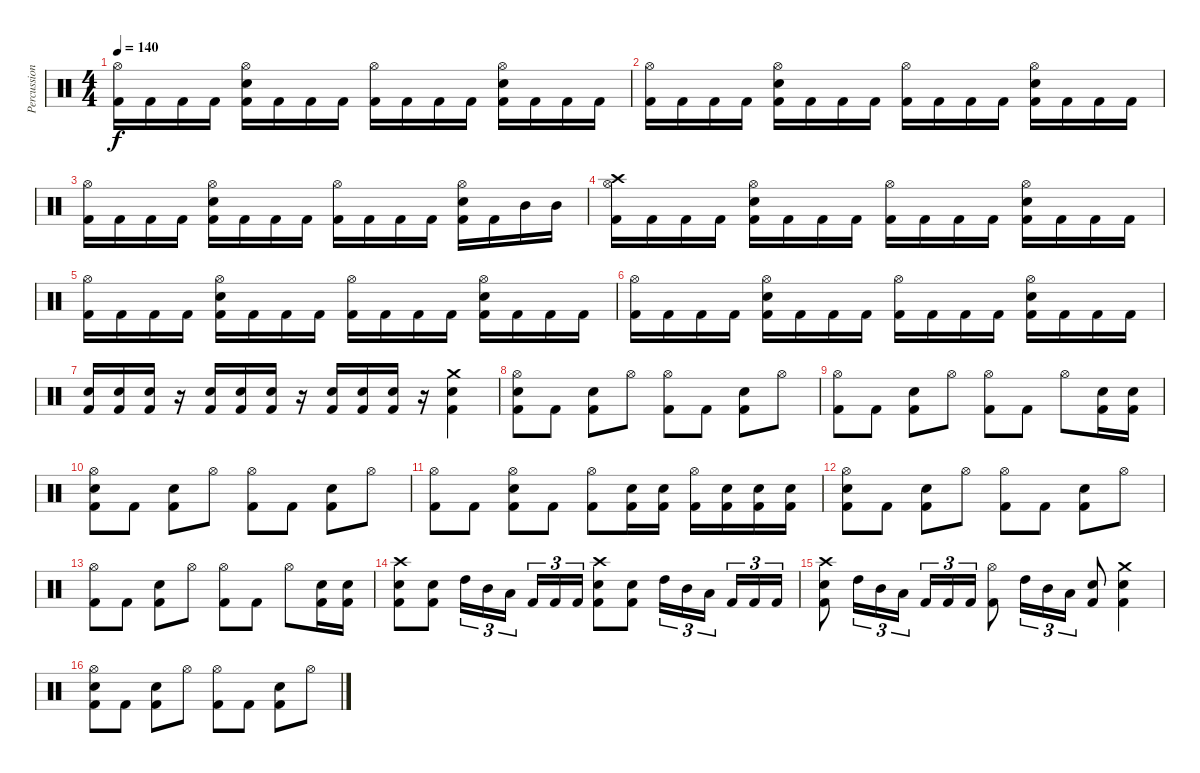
\track ("Percussions" "Percussion") {instrument percussion}
\staff {score}
\articulation defaults
\ts (4 4)
\tempo 140
\clef neutral
\ks c
("Hi-Hat (open)" "Kick (hit) 2").16{dy f} "Kick (hit) 2".16 "Kick (hit) 2".16 "Kick (hit) 2".16 ("Hi-Hat (open)" "Snare (hit) 2" "Kick (hit) 2").16 "Kick (hit) 2".16 "Kick (hit) 2".16 "Kick (hit) 2".16 ("Hi-Hat (open)" "Kick (hit) 2").16 "Kick (hit) 2".16 "Kick (hit) 2".16 "Kick (hit) 2".16 ("Hi-Hat (open)" "Snare (hit) 2" "Kick (hit) 2").16 "Kick (hit) 2".16 "Kick (hit) 2".16 "Kick (hit) 2".16 |
("Hi-Hat (open)" "Kick (hit) 2").16 "Kick (hit) 2".16 "Kick (hit) 2".16 "Kick (hit) 2".16 ("Hi-Hat (open)" "Snare (hit) 2" "Kick (hit) 2").16 "Kick (hit) 2".16 "Kick (hit) 2".16 "Kick (hit) 2".16 ("Hi-Hat (open)" "Kick (hit) 2").16 "Kick (hit) 2".16 "Kick (hit) 2".16 "Kick (hit) 2".16 ("Hi-Hat (open)" "Snare (hit) 2" "Kick (hit) 2").16 "Kick (hit) 2".16 "Kick (hit) 2".16 "Kick (hit) 2".16 |
("Hi-Hat (open)" "Kick (hit) 2").16 "Kick (hit) 2".16 "Kick (hit) 2".16 "Kick (hit) 2".16 ("Hi-Hat (open)" "Snare (hit) 2" "Kick (hit) 2").16 "Kick (hit) 2".16 "Kick (hit) 2".16 "Kick (hit) 2".16 ("Hi-Hat (open)" "Kick (hit) 2").16 "Kick (hit) 2".16 "Kick (hit) 2".16 "Kick (hit) 2".16 ("Hi-Hat (open)" "Snare (hit) 2" "Kick (hit) 2").16 "Kick (hit) 2".16 "Mid Tom (hit)".16 "Mid Tom (hit)".16 |
("Hi-Hat (open)" "Crash high (hit)" "Kick (hit) 2").16 "Kick (hit) 2".16 "Kick (hit) 2".16 "Kick (hit) 2".16 ("Hi-Hat (open)" "Snare (hit) 2" "Kick (hit) 2").16 "Kick (hit) 2".16 "Kick (hit) 2".16 "Kick (hit) 2".16 ("Hi-Hat (open)" "Kick (hit) 2").16 "Kick (hit) 2".16 "Kick (hit) 2".16 "Kick (hit) 2".16 ("Hi-Hat (open)" "Snare (hit) 2" "Kick (hit) 2").16 "Kick (hit) 2".16 "Kick (hit) 2".16 "Kick (hit) 2".16 |
("Hi-Hat (open)" "Kick (hit) 2").16 "Kick (hit) 2".16 "Kick (hit) 2".16 "Kick (hit) 2".16 ("Hi-Hat (open)" "Snare (hit) 2" "Kick (hit) 2").16 "Kick (hit) 2".16 "Kick (hit) 2".16 "Kick (hit) 2".16 ("Hi-Hat (open)" "Kick (hit) 2").16 "Kick (hit) 2".16 "Kick (hit) 2".16 "Kick (hit) 2".16 ("Hi-Hat (open)" "Snare (hit) 2" "Kick (hit) 2").16 "Kick (hit) 2".16 "Kick (hit) 2".16 "Kick (hit) 2".16 |
("Hi-Hat (open)" "Kick (hit) 2").16 "Kick (hit) 2".16 "Kick (hit) 2".16 "Kick (hit) 2".16 ("Hi-Hat (open)" "Snare (hit) 2" "Kick (hit) 2").16 "Kick (hit) 2".16 "Kick (hit) 2".16 "Kick (hit) 2".16 ("Hi-Hat (open)" "Kick (hit) 2").16 "Kick (hit) 2".16 "Kick (hit) 2".16 "Kick (hit) 2".16 ("Hi-Hat (open)" "Electric Snare (hit)" "Kick (hit) 2").16 "Kick (hit) 2".16 "Kick (hit) 2".16 "Kick (hit) 2".16 |
("Snare (hit) 2" "Kick (hit) 2").16 ("Snare (hit) 2" "Kick (hit) 2").16 ("Snare (hit) 2" "Kick (hit) 2").16 r.16 ("Snare (hit) 2" "Kick (hit) 2").16 ("Snare (hit) 2" "Kick (hit) 2").16 ("Snare (hit) 2" "Kick (hit) 2").16 r.16 ("Snare (hit) 2" "Kick (hit) 2").16 ("Snare (hit) 2" "Kick (hit) 2").16 ("Snare (hit) 2" "Kick (hit) 2").16 r.16 ("Crash medium (hit)" "Snare (hit) 2" "Kick (hit) 2").4 |
("Hi-Hat (open)" "Snare (hit) 2" "Kick (hit) 2").8 "Kick (hit) 2".8 ("Snare (hit) 2" "Kick (hit) 2").8 "Hi-Hat (open)".8 ("Hi-Hat (open)" "Kick (hit) 2").8 "Kick (hit) 2".8 ("Snare (hit) 2" "Kick (hit) 2").8 "Hi-Hat (open)".8 |
("Hi-Hat (open)" "Kick (hit) 2").8 "Kick (hit) 2".8 ("Snare (hit) 2" "Kick (hit) 2").8 "Hi-Hat (open)".8 ("Hi-Hat (open)" "Kick (hit) 2").8 "Kick (hit) 2".8 "Hi-Hat (open)".8 ("Snare (hit) 2" "Kick (hit) 2").16 ("Snare (hit) 2" "Kick (hit) 2").16 |
("Hi-Hat (open)" "Snare (hit) 2" "Kick (hit) 2").8 "Kick (hit) 2".8 ("Snare (hit) 2" "Kick (hit) 2").8 "Hi-Hat (open)".8 ("Hi-Hat (open)" "Kick (hit) 2").8 "Kick (hit) 2".8 ("Snare (hit) 2" "Kick (hit) 2").8 "Hi-Hat (open)".8 |
("Hi-Hat (open)" "Kick (hit) 2").8 "Kick (hit) 2".8 ("Hi-Hat (open)" "Snare (hit) 2" "Kick (hit) 2").8 "Kick (hit) 2".8 ("Hi-Hat (open)" "Kick (hit) 2").8 ("Snare (hit) 2" "Kick (hit) 2").16 ("Snare (hit) 2" "Kick (hit) 2").16 ("Hi-Hat (open)" "Kick (hit) 2").16 ("Snare (hit) 2" "Kick (hit) 2").16 ("Snare (hit) 2" "Kick (hit) 2").16 ("Snare (hit) 2" "Kick (hit) 2").16 |
("Hi-Hat (open)" "Snare (hit) 2" "Kick (hit) 2").8 "Kick (hit) 2".8 ("Snare (hit) 2" "Kick (hit) 2").8 "Hi-Hat (open)".8 ("Hi-Hat (open)" "Kick (hit) 2").8 "Kick (hit) 2".8 ("Snare (hit) 2" "Kick (hit) 2").8 "Hi-Hat (open)".8 |
("Hi-Hat (open)" "Kick (hit) 2").8 "Kick (hit) 2".8 ("Snare (hit) 2" "Kick (hit) 2").8 "Hi-Hat (open)".8 ("Hi-Hat (open)" "Kick (hit) 2").8 "Kick (hit) 2".8 "Hi-Hat (open)".8 ("Snare (hit) 2" "Kick (hit) 2").16 ("Snare (hit) 2" "Kick (hit) 2").16 |
("Crash high (hit)" "Snare (hit) 2" "Kick (hit) 2").8 ("Snare (hit) 2" "Kick (hit) 2").8 "High Tom (hit)".16{tu (3 2)} "Mid Tom (hit)".16{tu (3 2)} "Low Tom (hit)".16{tu (3 2)} "Kick (hit) 2".16{tu (3 2)} "Kick (hit) 2".16{tu (3 2)} "Kick (hit) 2".16{tu (3 2)} ("Crash high (hit)" "Snare (hit) 2" "Kick (hit) 2").8 ("Snare (hit) 2" "Kick (hit) 2").8 "High Tom (hit)".16{tu (3 2)} "Mid Tom (hit)".16{tu (3 2)} "Low Tom (hit)".16{tu (3 2)} "Kick (hit) 2".16{tu (3 2)} "Kick (hit) 2".16{tu (3 2)} "Kick (hit) 2".16{tu (3 2)} |
("Crash high (hit)" "Snare (hit) 2" "Kick (hit) 2").8 "High Tom (hit)".16{tu (3 2)} "Mid Tom (hit)".16{tu (3 2)} "Low Tom (hit)".16{tu (3 2)} "Kick (hit) 2".16{tu (3 2)} "Kick (hit) 2".16{tu (3 2)} "Kick (hit) 2".16{tu (3 2)} ("Hi-Hat (open)" "Kick (hit) 2").8 "High Tom (hit)".16{tu (3 2)} "Mid Tom (hit)".16{tu (3 2)} "Low Tom (hit)".16{tu (3 2)} ("Snare (hit) 2" "Kick (hit) 2").8 ("Crash medium (hit)" "Snare (hit) 2" "Kick (hit) 2").4 |
("Hi-Hat (open)" "Snare (hit) 2" "Kick (hit) 2").8 "Kick (hit) 2".8 ("Snare (hit) 2" "Kick (hit) 2").8 "Hi-Hat (open)".8 ("Hi-Hat (open)" "Kick (hit) 2").8 "Kick (hit) 2".8 ("Snare (hit) 2" "Kick (hit) 2").8 "Hi-Hat (open)".8
